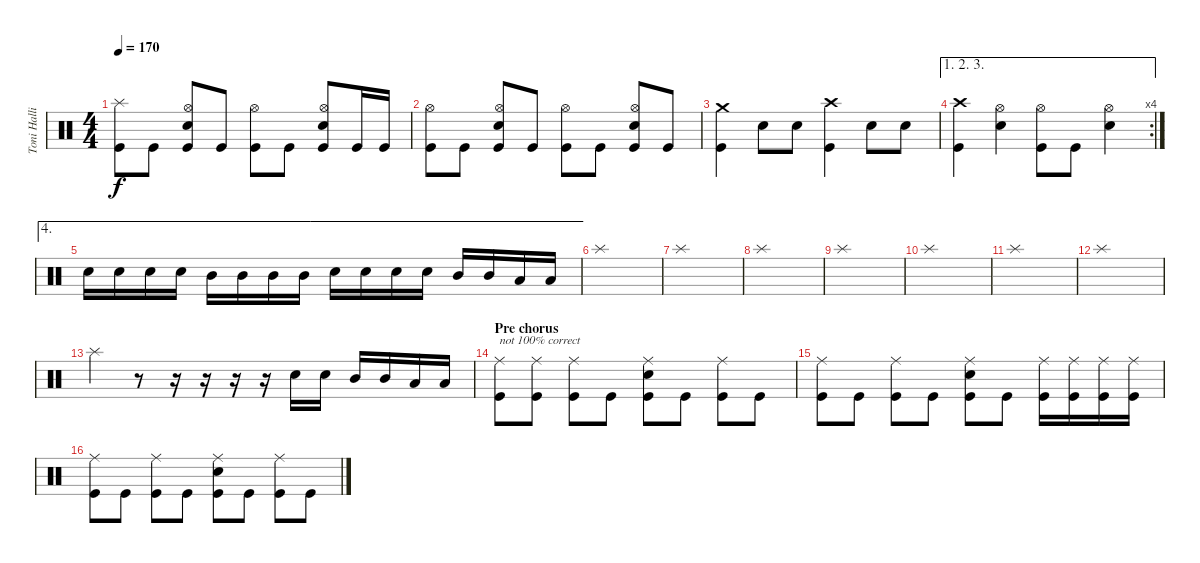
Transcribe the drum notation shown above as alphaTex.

\track ("Toni Hallio" "Toni Halli") {instrument percussion}
\staff {score}
\articulation defaults
\ts (4 4)
\tempo 170
\clef neutral
\ks c
("Splash (hit)" "Kick (hit)").8{dy f} "Kick (hit)".8 ("Hi-Hat (open)" "Snare (hit) 2" "Kick (hit)").8 "Kick (hit)".8 ("Hi-Hat (open)" "Kick (hit)").8 "Kick (hit)".8 ("Hi-Hat (open)" "Snare (hit) 2" "Kick (hit)").8 "Kick (hit)".16 "Kick (hit)".16 |
("Hi-Hat (open)" "Kick (hit)").8 "Kick (hit)".8 ("Hi-Hat (open)" "Snare (hit) 2" "Kick (hit)").8 "Kick (hit)".8 ("Hi-Hat (open)" "Kick (hit)").8 "Kick (hit)".8 ("Hi-Hat (open)" "Snare (hit) 2" "Kick (hit)").8 "Kick (hit)".8 |
("Crash medium (hit)" "Kick (hit)").4 "Snare (hit) 2".8 "Snare (hit) 2".8 ("Crash high (hit)" "Kick (hit)").4 "Snare (hit) 2".8 "Snare (hit) 2".8 |
\ae (1 2 3)
\rc 4
("Crash high (hit)" "Kick (hit)").4 ("Hi-Hat (open)" "Snare (hit) 2").4 ("Hi-Hat (open)" "Kick (hit)").8 "Kick (hit)".8 ("Hi-Hat (open)" "Snare (hit) 2").4 |
\ae 4 "Snare (hit) 2".16 "Snare (hit) 2".16 "Snare (hit) 2".16 "Snare (hit) 2".16 "Mid Tom (hit)".16 "Mid Tom (hit)".16 "Mid Tom (hit)".16 "Mid Tom (hit)".16 "Snare (hit) 2".16 "Snare (hit) 2".16 "Snare (hit) 2".16 "Snare (hit) 2".16 "Mid Tom (hit)".16 "Mid Tom (hit)".16 "Low Tom (hit)".16 "Low Tom (hit)".16
|
"Splash (hit)".1 |
"Splash (hit)".1 |
"Splash (hit)".1 |
"Splash (hit)".1 |
"Splash (hit)".1 |
"Splash (hit)".1 |
"Splash (hit)".1 |
"Splash (hit)".4 r.8 r.16 r.16 r.16 r.16 "Snare (hit) 2".16 "Snare (hit) 2".16 "Mid Tom (hit)".16 "Mid Tom (hit)".16 "Low Tom (hit)".16 "Low Tom (hit)".16 |
\section ("" "Pre chorus")
("Ride (middle)" "Kick (hit)").8{txt "not 100% correct"} ("Ride (middle)" "Kick (hit)").8 ("Ride (middle)" "Kick (hit)").8 "Kick (hit)".8 ("Ride (middle)" "Snare (hit) 2" "Kick (hit)").8 "Kick (hit)".8 ("Ride (middle)" "Kick (hit)").8 "Kick (hit)".8 |
("Ride (middle)" "Kick (hit)").8 "Kick (hit)".8 ("Ride (middle)" "Kick (hit)").8 "Kick (hit)".8 ("Ride (middle)" "Snare (hit) 2" "Kick (hit)").8 "Kick (hit)".8 ("Ride (middle)" "Kick (hit)").16 ("Ride (middle)" "Kick (hit)").16 ("Ride (middle)" "Kick (hit)").16 ("Ride (middle)" "Kick (hit)").16 |
("Ride (middle)" "Kick (hit)").8 "Kick (hit)".8 ("Ride (middle)" "Kick (hit)").8 "Kick (hit)".8 ("Ride (middle)" "Snare (hit) 2" "Kick (hit)").8 "Kick (hit)".8 ("Ride (middle)" "Kick (hit)").8 "Kick (hit)".8
